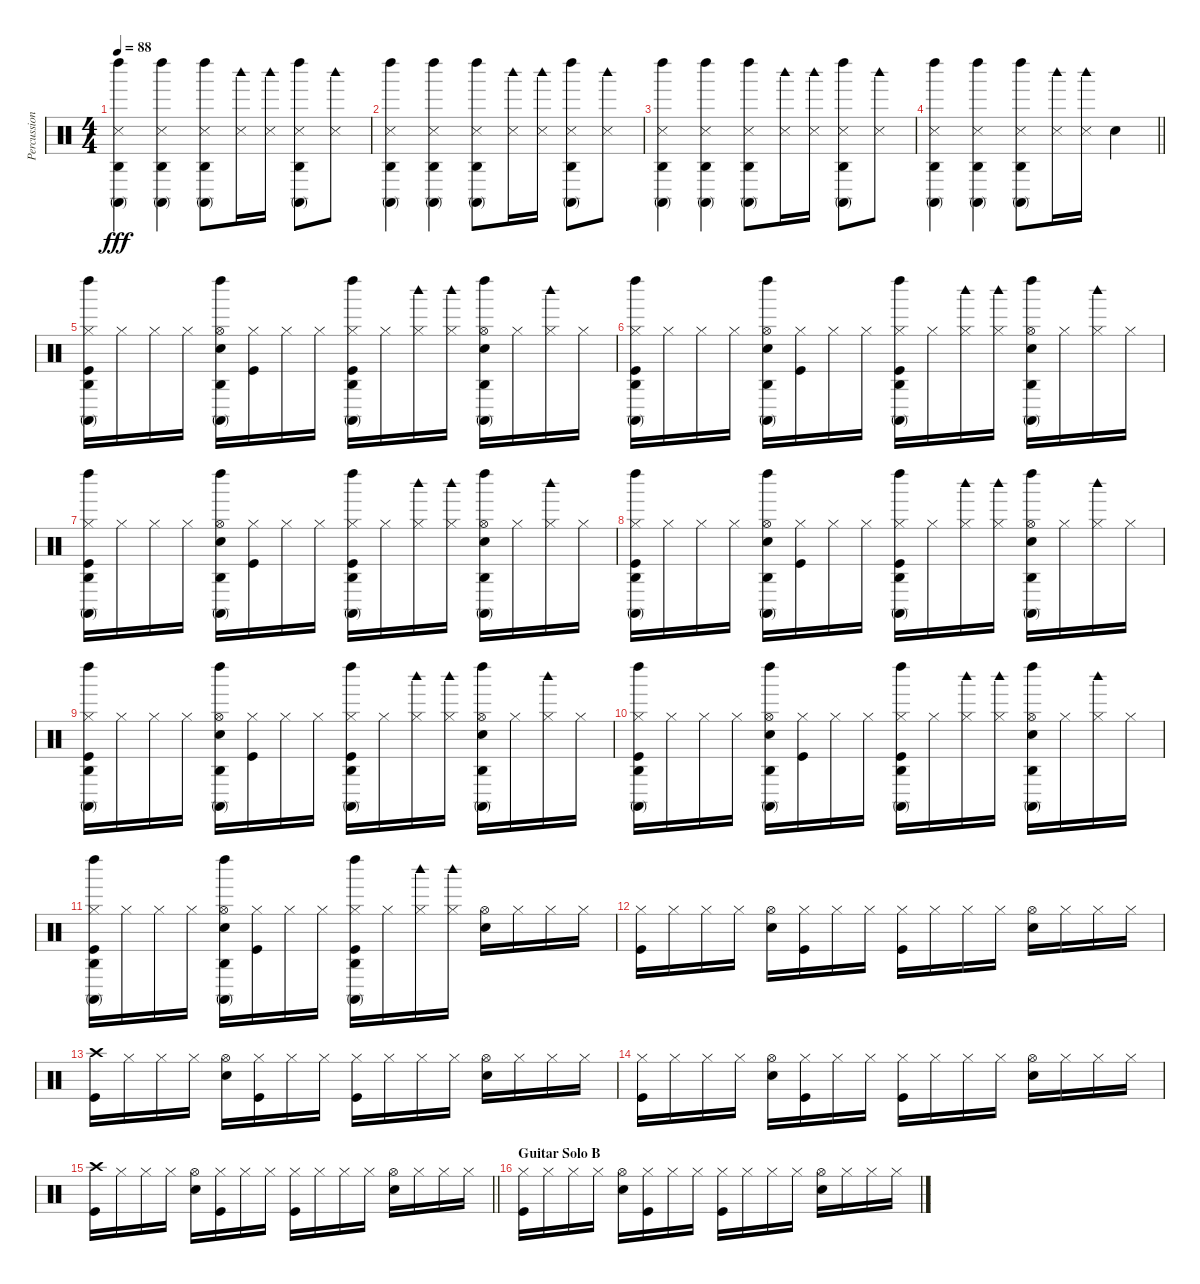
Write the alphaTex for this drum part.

\track ("Percussion" "Percussion") {instrument percussion}
\staff {score}
\articulation defaults
\ts (4 4)
\tempo 88
\clef neutral
\ks c
("Left Maraca (hit)" "Agogo high (hit)" "Conga high (mute)" "Snare (side stick) 3").4{dy fff} ("Left Maraca (hit)" "Agogo high (hit)" "Conga high (mute)" "Snare (side stick) 3").4 ("Left Maraca (hit)" "Agogo high (hit)" "Conga high (mute)" "Snare (side stick) 3").8 ("Woodblock high (hit)" "Snare (side stick) 3").16 ("Woodblock high (hit)" "Snare (side stick) 3").16 ("Left Maraca (hit)" "Agogo high (hit)" "Conga high (mute)" "Snare (side stick) 3").8 ("Woodblock high (hit)" "Snare (side stick) 3").8 |
("Left Maraca (hit)" "Agogo high (hit)" "Conga high (mute)" "Snare (side stick) 3").4 ("Left Maraca (hit)" "Agogo high (hit)" "Conga high (mute)" "Snare (side stick) 3").4 ("Left Maraca (hit)" "Agogo high (hit)" "Conga high (mute)" "Snare (side stick) 3").8 ("Woodblock high (hit)" "Snare (side stick) 3").16 ("Woodblock high (hit)" "Snare (side stick) 3").16 ("Left Maraca (hit)" "Agogo high (hit)" "Conga high (mute)" "Snare (side stick) 3").8 ("Woodblock high (hit)" "Snare (side stick) 3").8 |
("Left Maraca (hit)" "Agogo high (hit)" "Conga high (mute)" "Snare (side stick) 3").4 ("Left Maraca (hit)" "Agogo high (hit)" "Conga high (mute)" "Snare (side stick) 3").4 ("Left Maraca (hit)" "Agogo high (hit)" "Conga high (mute)" "Snare (side stick) 3").8 ("Woodblock high (hit)" "Snare (side stick) 3").16 ("Woodblock high (hit)" "Snare (side stick) 3").16 ("Left Maraca (hit)" "Agogo high (hit)" "Conga high (mute)" "Snare (side stick) 3").8 ("Woodblock high (hit)" "Snare (side stick) 3").8 |
\barLineRight lightlight
("Left Maraca (hit)" "Agogo high (hit)" "Conga high (mute)" "Snare (side stick) 3").4 ("Left Maraca (hit)" "Agogo high (hit)" "Conga high (mute)" "Snare (side stick) 3").4 ("Left Maraca (hit)" "Agogo high (hit)" "Conga high (mute)" "Snare (side stick) 3").8 ("Woodblock high (hit)" "Snare (side stick) 3").16 ("Woodblock high (hit)" "Snare (side stick) 3").16 "Electric Snare (hit)".4 |
("Hi-Hat (closed)" "Left Maraca (hit)" "Agogo high (hit)" "Conga high (mute)" "Kick (hit)").16 "Hi-Hat (closed)".16 "Hi-Hat (closed)".16 "Hi-Hat (closed)".16 ("Hi-Hat (open)" "Left Maraca (hit)" "Agogo high (hit)" "Conga high (mute)" "Snare (hit) 2").16 ("Hi-Hat (closed)" "Kick (hit)").16 "Hi-Hat (closed)".16 "Hi-Hat (closed)".16 ("Hi-Hat (closed)" "Left Maraca (hit)" "Agogo high (hit)" "Conga high (mute)" "Kick (hit)").16 "Hi-Hat (closed)".16 ("Hi-Hat (closed)" "Woodblock high (hit)").16 ("Hi-Hat (closed)" "Woodblock high (hit)").16 ("Hi-Hat (open)" "Left Maraca (hit)" "Agogo high (hit)" "Conga high (mute)" "Snare (hit) 2").16 "Hi-Hat (closed)".16 ("Hi-Hat (closed)" "Woodblock high (hit)").16 "Hi-Hat (closed)".16 |
("Hi-Hat (closed)" "Left Maraca (hit)" "Agogo high (hit)" "Conga high (mute)" "Kick (hit)").16 "Hi-Hat (closed)".16 "Hi-Hat (closed)".16 "Hi-Hat (closed)".16 ("Hi-Hat (open)" "Left Maraca (hit)" "Agogo high (hit)" "Conga high (mute)" "Snare (hit) 2").16 ("Hi-Hat (closed)" "Kick (hit)").16 "Hi-Hat (closed)".16 "Hi-Hat (closed)".16 ("Hi-Hat (closed)" "Left Maraca (hit)" "Agogo high (hit)" "Conga high (mute)" "Kick (hit)").16 "Hi-Hat (closed)".16 ("Hi-Hat (closed)" "Woodblock high (hit)").16 ("Hi-Hat (closed)" "Woodblock high (hit)").16 ("Hi-Hat (open)" "Left Maraca (hit)" "Agogo high (hit)" "Conga high (mute)" "Snare (hit) 2").16 "Hi-Hat (closed)".16 ("Hi-Hat (closed)" "Woodblock high (hit)").16 "Hi-Hat (closed)".16 |
("Hi-Hat (closed)" "Left Maraca (hit)" "Agogo high (hit)" "Conga high (mute)" "Kick (hit)").16 "Hi-Hat (closed)".16 "Hi-Hat (closed)".16 "Hi-Hat (closed)".16 ("Hi-Hat (open)" "Left Maraca (hit)" "Agogo high (hit)" "Conga high (mute)" "Snare (hit) 2").16 ("Hi-Hat (closed)" "Kick (hit)").16 "Hi-Hat (closed)".16 "Hi-Hat (closed)".16 ("Hi-Hat (closed)" "Left Maraca (hit)" "Agogo high (hit)" "Conga high (mute)" "Kick (hit)").16 "Hi-Hat (closed)".16 ("Hi-Hat (closed)" "Woodblock high (hit)").16 ("Hi-Hat (closed)" "Woodblock high (hit)").16 ("Hi-Hat (open)" "Left Maraca (hit)" "Agogo high (hit)" "Conga high (mute)" "Snare (hit) 2").16 "Hi-Hat (closed)".16 ("Hi-Hat (closed)" "Woodblock high (hit)").16 "Hi-Hat (closed)".16 |
("Hi-Hat (closed)" "Left Maraca (hit)" "Agogo high (hit)" "Conga high (mute)" "Kick (hit)").16 "Hi-Hat (closed)".16 "Hi-Hat (closed)".16 "Hi-Hat (closed)".16 ("Hi-Hat (open)" "Left Maraca (hit)" "Agogo high (hit)" "Conga high (mute)" "Snare (hit) 2").16 ("Hi-Hat (closed)" "Kick (hit)").16 "Hi-Hat (closed)".16 "Hi-Hat (closed)".16 ("Hi-Hat (closed)" "Left Maraca (hit)" "Agogo high (hit)" "Conga high (mute)" "Kick (hit)").16 "Hi-Hat (closed)".16 ("Hi-Hat (closed)" "Woodblock high (hit)").16 ("Hi-Hat (closed)" "Woodblock high (hit)").16 ("Hi-Hat (open)" "Left Maraca (hit)" "Agogo high (hit)" "Conga high (mute)" "Snare (hit) 2").16 "Hi-Hat (closed)".16 ("Hi-Hat (closed)" "Woodblock high (hit)").16 "Hi-Hat (closed)".16 |
("Hi-Hat (closed)" "Left Maraca (hit)" "Agogo high (hit)" "Conga high (mute)" "Kick (hit)").16 "Hi-Hat (closed)".16 "Hi-Hat (closed)".16 "Hi-Hat (closed)".16 ("Hi-Hat (open)" "Left Maraca (hit)" "Agogo high (hit)" "Conga high (mute)" "Snare (hit) 2").16 ("Hi-Hat (closed)" "Kick (hit)").16 "Hi-Hat (closed)".16 "Hi-Hat (closed)".16 ("Hi-Hat (closed)" "Left Maraca (hit)" "Agogo high (hit)" "Conga high (mute)" "Kick (hit)").16 "Hi-Hat (closed)".16 ("Hi-Hat (closed)" "Woodblock high (hit)").16 ("Hi-Hat (closed)" "Woodblock high (hit)").16 ("Hi-Hat (open)" "Left Maraca (hit)" "Agogo high (hit)" "Conga high (mute)" "Snare (hit) 2").16 "Hi-Hat (closed)".16 ("Hi-Hat (closed)" "Woodblock high (hit)").16 "Hi-Hat (closed)".16 |
("Hi-Hat (closed)" "Left Maraca (hit)" "Agogo high (hit)" "Conga high (mute)" "Kick (hit)").16 "Hi-Hat (closed)".16 "Hi-Hat (closed)".16 "Hi-Hat (closed)".16 ("Hi-Hat (open)" "Left Maraca (hit)" "Agogo high (hit)" "Conga high (mute)" "Snare (hit) 2").16 ("Hi-Hat (closed)" "Kick (hit)").16 "Hi-Hat (closed)".16 "Hi-Hat (closed)".16 ("Hi-Hat (closed)" "Left Maraca (hit)" "Agogo high (hit)" "Conga high (mute)" "Kick (hit)").16 "Hi-Hat (closed)".16 ("Hi-Hat (closed)" "Woodblock high (hit)").16 ("Hi-Hat (closed)" "Woodblock high (hit)").16 ("Hi-Hat (open)" "Left Maraca (hit)" "Agogo high (hit)" "Conga high (mute)" "Snare (hit) 2").16 "Hi-Hat (closed)".16 ("Hi-Hat (closed)" "Woodblock high (hit)").16 "Hi-Hat (closed)".16 |
("Hi-Hat (closed)" "Left Maraca (hit)" "Agogo high (hit)" "Conga high (mute)" "Kick (hit)").16 "Hi-Hat (closed)".16 "Hi-Hat (closed)".16 "Hi-Hat (closed)".16 ("Hi-Hat (open)" "Left Maraca (hit)" "Agogo high (hit)" "Conga high (mute)" "Snare (hit) 2").16 ("Hi-Hat (closed)" "Kick (hit)").16 "Hi-Hat (closed)".16 "Hi-Hat (closed)".16 ("Hi-Hat (closed)" "Left Maraca (hit)" "Agogo high (hit)" "Conga high (mute)" "Kick (hit)").16 "Hi-Hat (closed)".16 ("Hi-Hat (closed)" "Woodblock high (hit)").16 ("Hi-Hat (closed)" "Woodblock high (hit)").16 ("Hi-Hat (open)" "Snare (hit) 2").16 "Hi-Hat (closed)".16 "Hi-Hat (closed)".16 "Hi-Hat (closed)".16 |
("Hi-Hat (closed)" "Kick (hit)").16 "Hi-Hat (closed)".16 "Hi-Hat (closed)".16 "Hi-Hat (closed)".16 ("Hi-Hat (open)" "Snare (hit) 2").16 ("Hi-Hat (closed)" "Kick (hit)").16 "Hi-Hat (closed)".16 "Hi-Hat (closed)".16 ("Hi-Hat (closed)" "Kick (hit)").16 "Hi-Hat (closed)".16 "Hi-Hat (closed)".16 "Hi-Hat (closed)".16 ("Hi-Hat (open)" "Snare (hit) 2").16 "Hi-Hat (closed)".16 "Hi-Hat (closed)".16 "Hi-Hat (closed)".16 |
("Crash high (hit)" "Kick (hit)").16 "Hi-Hat (closed)".16 "Hi-Hat (closed)".16 "Hi-Hat (closed)".16 ("Hi-Hat (open)" "Snare (hit) 2").16 ("Hi-Hat (closed)" "Kick (hit)").16 "Hi-Hat (closed)".16 "Hi-Hat (closed)".16 ("Hi-Hat (closed)" "Kick (hit)").16 "Hi-Hat (closed)".16 "Hi-Hat (closed)".16 "Hi-Hat (closed)".16 ("Hi-Hat (open)" "Snare (hit) 2").16 "Hi-Hat (closed)".16 "Hi-Hat (closed)".16 "Hi-Hat (closed)".16 |
("Hi-Hat (closed)" "Kick (hit)").16 "Hi-Hat (closed)".16 "Hi-Hat (closed)".16 "Hi-Hat (closed)".16 ("Hi-Hat (open)" "Snare (hit) 2").16 ("Hi-Hat (closed)" "Kick (hit)").16 "Hi-Hat (closed)".16 "Hi-Hat (closed)".16 ("Hi-Hat (closed)" "Kick (hit)").16 "Hi-Hat (closed)".16 "Hi-Hat (closed)".16 "Hi-Hat (closed)".16 ("Hi-Hat (open)" "Snare (hit) 2").16 "Hi-Hat (closed)".16 "Hi-Hat (closed)".16 "Hi-Hat (closed)".16 |
\barLineRight lightlight
("Crash high (hit)" "Kick (hit)").16 "Hi-Hat (closed)".16 "Hi-Hat (closed)".16 "Hi-Hat (closed)".16 ("Hi-Hat (open)" "Snare (hit) 2").16 ("Hi-Hat (closed)" "Kick (hit)").16 "Hi-Hat (closed)".16 "Hi-Hat (closed)".16 ("Hi-Hat (closed)" "Kick (hit)").16 "Hi-Hat (closed)".16 "Hi-Hat (closed)".16 "Hi-Hat (closed)".16 ("Hi-Hat (open)" "Snare (hit) 2").16 "Hi-Hat (closed)".16 "Hi-Hat (closed)".16 "Hi-Hat (closed)".16 |
\section ("" "Guitar Solo B")
("Hi-Hat (closed)" "Kick (hit)").16 "Hi-Hat (closed)".16 "Hi-Hat (closed)".16 "Hi-Hat (closed)".16 ("Hi-Hat (open)" "Snare (hit) 2").16 ("Hi-Hat (closed)" "Kick (hit)").16 "Hi-Hat (closed)".16 "Hi-Hat (closed)".16 ("Hi-Hat (closed)" "Kick (hit)").16 "Hi-Hat (closed)".16 "Hi-Hat (closed)".16 "Hi-Hat (closed)".16 ("Hi-Hat (open)" "Snare (hit) 2").16 "Hi-Hat (closed)".16 "Hi-Hat (closed)".16 "Hi-Hat (closed)".16
